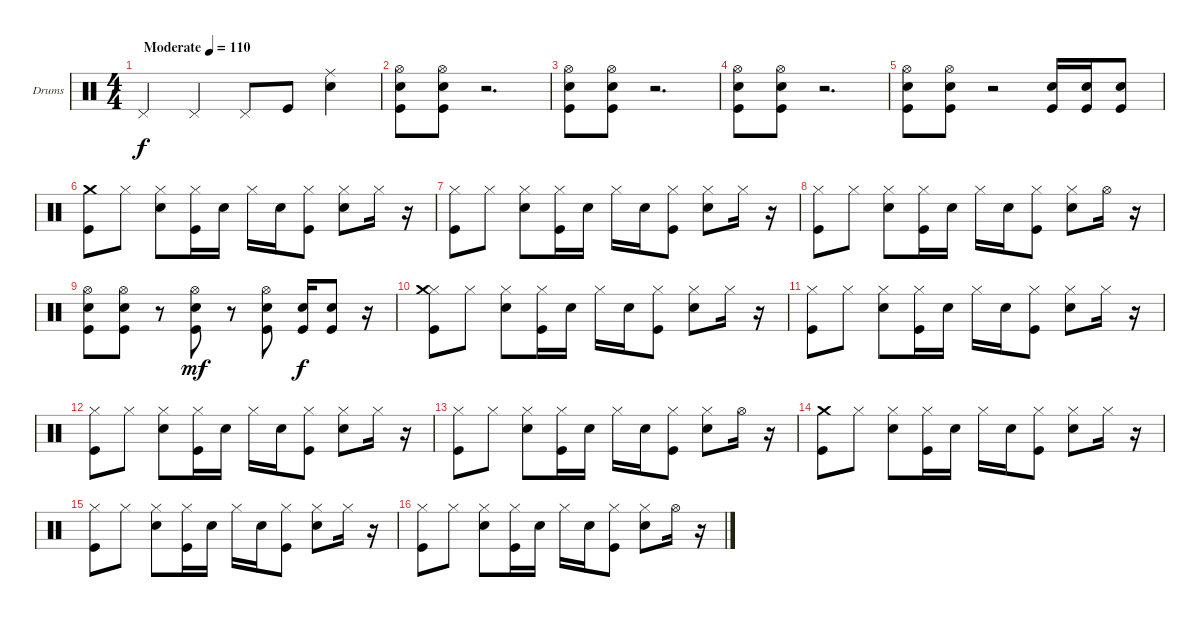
\bracketExtendMode groupsimilarinstruments
\firstSystemTrackNameOrientation horizontal
\otherSystemsTrackNameOrientation horizontal
\track ("Drumkit" "Drums") {instrument percussion}
\staff {score}
\articulation defaults
\ts (4 4)
\beaming (8 2 2 2 2)
\tempo (110 "Moderate")
\clef neutral
\ks c "Pedal Hi-Hat (hit)".4{dy f} "Pedal Hi-Hat (hit)".4 "Pedal Hi-Hat (hit)".8 "Kick (hit)".8
("Snare (hit) 2" "Ride (middle)").4 |
("Kick (hit)" "Snare (hit) 2" "Hi-Hat (open)").8 ("Kick (hit)" "Snare (hit) 2" "Hi-Hat (open)").8 r.2{d} |
("Kick (hit)" "Snare (hit) 2" "Hi-Hat (open)").8 ("Kick (hit)" "Snare (hit) 2" "Hi-Hat (open)").8 r.2{d} |
("Kick (hit)" "Snare (hit) 2" "Hi-Hat (open)").8 ("Kick (hit)" "Snare (hit) 2" "Hi-Hat (open)").8 r.2{d} |
("Kick (hit)" "Snare (hit) 2" "Hi-Hat (open)").8 ("Kick (hit)" "Snare (hit) 2" "Hi-Hat (open)").8 r.2 ("Kick (hit)" "Snare (hit) 2").16 ("Kick (hit)" "Snare (hit) 2").16 ("Kick (hit)" "Snare (hit) 2").8 |
("Crash medium (hit)" "Kick (hit)").8 "Hi-Hat (closed)".8 ("Hi-Hat (closed)" "Snare (hit) 2").8 ("Hi-Hat (closed)" "Kick (hit)").16 "Snare (hit) 2".16 "Hi-Hat (closed)".16 "Snare (hit) 2".16 ("Hi-Hat (closed)" "Kick (hit)").8 ("Hi-Hat (closed)" "Snare (hit) 2").8 "Hi-Hat (closed)".16 r.16 |
("Hi-Hat (closed)" "Kick (hit)").8 "Hi-Hat (closed)".8 ("Hi-Hat (closed)" "Snare (hit) 2").8 ("Hi-Hat (closed)" "Kick (hit)").16 "Snare (hit) 2".16 "Hi-Hat (closed)".16 "Snare (hit) 2".16 ("Hi-Hat (closed)" "Kick (hit)").8 ("Hi-Hat (closed)" "Snare (hit) 2").8 "Hi-Hat (closed)".16 r.16 |
("Hi-Hat (closed)" "Kick (hit)").8 "Hi-Hat (closed)".8 ("Hi-Hat (closed)" "Snare (hit) 2").8 ("Hi-Hat (closed)" "Kick (hit)").16 "Snare (hit) 2".16 "Hi-Hat (closed)".16 "Snare (hit) 2".16 ("Hi-Hat (closed)" "Kick (hit)").8 ("Hi-Hat (closed)" "Snare (hit) 2").8 "Hi-Hat (open)".16 r.16 |
("Kick (hit)" "Snare (hit) 2" "Hi-Hat (open)").8 ("Kick (hit)" "Snare (hit) 2" "Hi-Hat (open)").8 r.8 ("Kick (hit)" "Snare (hit) 2" "Hi-Hat (open)").8{dy mf} r.8 ("Kick (hit)" "Snare (hit) 2" "Hi-Hat (open)").8 ("Kick (hit)" "Snare (hit) 2").16{dy f} ("Kick (hit)" "Snare (hit) 2").8 r.16 |
("Hi-Hat (closed)" "Crash medium (hit)" "Kick (hit)").8 "Hi-Hat (closed)".8 ("Hi-Hat (closed)" "Snare (hit) 2").8 ("Hi-Hat (closed)" "Kick (hit)").16 "Snare (hit) 2".16 "Hi-Hat (closed)".16 "Snare (hit) 2".16 ("Hi-Hat (closed)" "Kick (hit)").8 ("Hi-Hat (closed)" "Snare (hit) 2").8 "Hi-Hat (closed)".16 r.16 |
("Hi-Hat (closed)" "Kick (hit)").8 "Hi-Hat (closed)".8 ("Hi-Hat (closed)" "Snare (hit) 2").8 ("Hi-Hat (closed)" "Kick (hit)").16 "Snare (hit) 2".16 "Hi-Hat (closed)".16 "Snare (hit) 2".16 ("Hi-Hat (closed)" "Kick (hit)").8 ("Hi-Hat (closed)" "Snare (hit) 2").8 "Hi-Hat (closed)".16 r.16 |
("Hi-Hat (closed)" "Kick (hit)").8 "Hi-Hat (closed)".8 ("Hi-Hat (closed)" "Snare (hit) 2").8 ("Hi-Hat (closed)" "Kick (hit)").16 "Snare (hit) 2".16 "Hi-Hat (closed)".16 "Snare (hit) 2".16 ("Hi-Hat (closed)" "Kick (hit)").8 ("Hi-Hat (closed)" "Snare (hit) 2").8 "Hi-Hat (closed)".16 r.16 |
("Hi-Hat (closed)" "Kick (hit)").8 "Hi-Hat (closed)".8 ("Hi-Hat (closed)" "Snare (hit) 2").8 ("Hi-Hat (closed)" "Kick (hit)").16 "Snare (hit) 2".16 "Hi-Hat (closed)".16 "Snare (hit) 2".16 ("Hi-Hat (closed)" "Kick (hit)").8 ("Hi-Hat (closed)" "Snare (hit) 2").8 "Hi-Hat (open)".16 r.16 |
("Crash medium (hit)" "Kick (hit)").8 "Hi-Hat (closed)".8 ("Hi-Hat (closed)" "Snare (hit) 2").8 ("Hi-Hat (closed)" "Kick (hit)").16 "Snare (hit) 2".16 "Hi-Hat (closed)".16 "Snare (hit) 2".16 ("Hi-Hat (closed)" "Kick (hit)").8 ("Hi-Hat (closed)" "Snare (hit) 2").8 "Hi-Hat (closed)".16 r.16 |
("Hi-Hat (closed)" "Kick (hit)").8 "Hi-Hat (closed)".8 ("Hi-Hat (closed)" "Snare (hit) 2").8 ("Hi-Hat (closed)" "Kick (hit)").16 "Snare (hit) 2".16 "Hi-Hat (closed)".16 "Snare (hit) 2".16 ("Hi-Hat (closed)" "Kick (hit)").8 ("Hi-Hat (closed)" "Snare (hit) 2").8 "Hi-Hat (closed)".16 r.16 |
("Hi-Hat (closed)" "Kick (hit)").8 "Hi-Hat (closed)".8 ("Hi-Hat (closed)" "Snare (hit) 2").8 ("Hi-Hat (closed)" "Kick (hit)").16 "Snare (hit) 2".16 "Hi-Hat (closed)".16 "Snare (hit) 2".16 ("Hi-Hat (closed)" "Kick (hit)").8 ("Hi-Hat (closed)" "Snare (hit) 2").8 "Hi-Hat (open)".16 r.16
